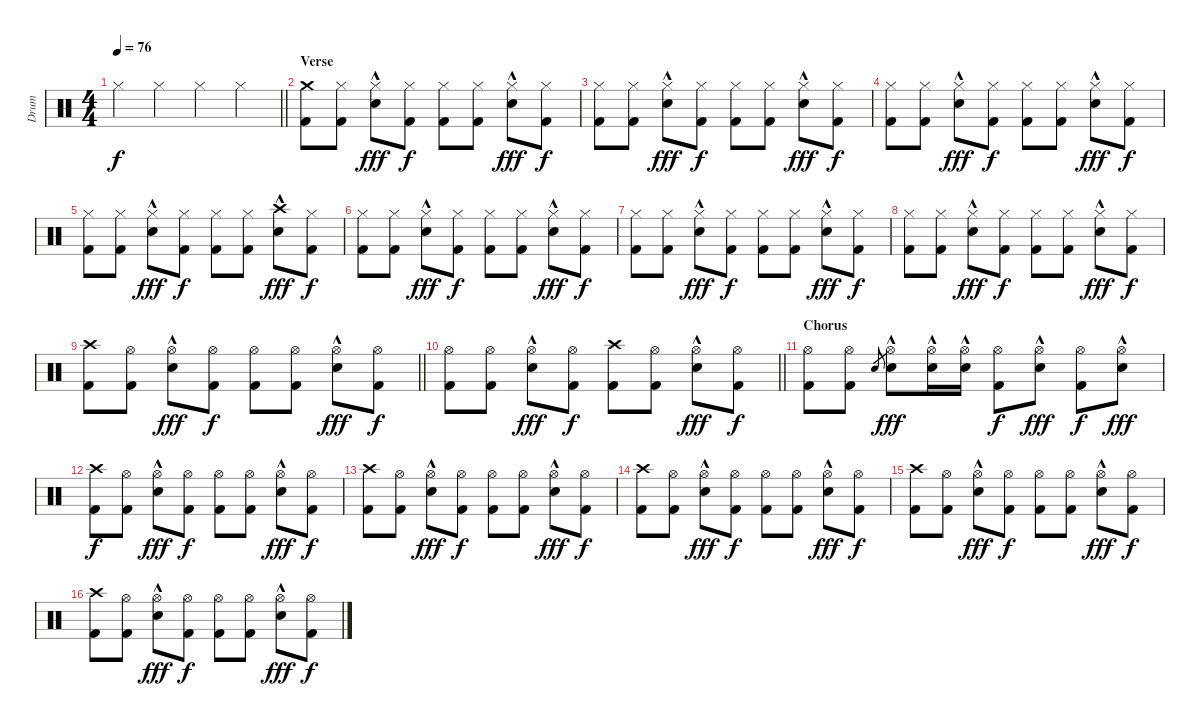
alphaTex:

\track ("Drum" "Drum") {instrument percussion}
\staff {score}
\articulation defaults
\ts (4 4)
\tempo 76
\clef neutral
\barLineRight lightlight
\ks c "Hi-Hat (closed)".4{dy f} "Hi-Hat (closed)".4 "Hi-Hat (closed)".4 "Hi-Hat (closed)".4
|
\section ("" "Verse")
("Crash medium (hit)" "Kick (hit) 2").8 ("Hi-Hat (closed)" "Kick (hit) 2").8 ("Hi-Hat (closed)" "Electric Snare (hit)"{hac}).8{dy fff} ("Hi-Hat (closed)" "Kick (hit) 2").8{dy f} ("Hi-Hat (closed)" "Kick (hit) 2").8 ("Hi-Hat (closed)" "Kick (hit) 2").8 ("Hi-Hat (closed)" "Electric Snare (hit)"{hac}).8{dy fff} ("Hi-Hat (closed)" "Kick (hit) 2").8{dy f} |
("Hi-Hat (closed)" "Kick (hit) 2").8 ("Hi-Hat (closed)" "Kick (hit) 2").8 ("Hi-Hat (closed)" "Electric Snare (hit)"{hac}).8{dy fff} ("Hi-Hat (closed)" "Kick (hit) 2").8{dy f} ("Hi-Hat (closed)" "Kick (hit) 2").8 ("Hi-Hat (closed)" "Kick (hit) 2").8 ("Hi-Hat (closed)" "Electric Snare (hit)"{hac}).8{dy fff} ("Hi-Hat (closed)" "Kick (hit) 2").8{dy f} |
("Hi-Hat (closed)" "Kick (hit) 2").8 ("Hi-Hat (closed)" "Kick (hit) 2").8 ("Hi-Hat (closed)" "Electric Snare (hit)"{hac}).8{dy fff} ("Hi-Hat (closed)" "Kick (hit) 2").8{dy f} ("Hi-Hat (closed)" "Kick (hit) 2").8 ("Hi-Hat (closed)" "Kick (hit) 2").8 ("Hi-Hat (closed)" "Electric Snare (hit)"{hac}).8{dy fff} ("Hi-Hat (closed)" "Kick (hit) 2").8{dy f} |
("Hi-Hat (closed)" "Kick (hit) 2").8 ("Hi-Hat (closed)" "Kick (hit) 2").8 ("Hi-Hat (closed)" "Electric Snare (hit)"{hac}).8{dy fff} ("Hi-Hat (closed)" "Kick (hit) 2").8{dy f} ("Hi-Hat (closed)" "Kick (hit) 2").8 ("Hi-Hat (closed)" "Kick (hit) 2").8 ("Crash high (hit)" "Electric Snare (hit)"{hac}).8{dy fff} ("Hi-Hat (closed)" "Kick (hit) 2").8{dy f} |
("Hi-Hat (closed)" "Kick (hit) 2").8 ("Hi-Hat (closed)" "Kick (hit) 2").8 ("Hi-Hat (closed)" "Electric Snare (hit)"{hac}).8{dy fff} ("Hi-Hat (closed)" "Kick (hit) 2").8{dy f} ("Hi-Hat (closed)" "Kick (hit) 2").8 ("Hi-Hat (closed)" "Kick (hit) 2").8 ("Hi-Hat (closed)" "Electric Snare (hit)"{hac}).8{dy fff} ("Hi-Hat (closed)" "Kick (hit) 2").8{dy f} |
("Hi-Hat (closed)" "Kick (hit) 2").8 ("Hi-Hat (closed)" "Kick (hit) 2").8 ("Hi-Hat (closed)" "Electric Snare (hit)"{hac}).8{dy fff} ("Hi-Hat (closed)" "Kick (hit) 2").8{dy f} ("Hi-Hat (closed)" "Kick (hit) 2").8 ("Hi-Hat (closed)" "Kick (hit) 2").8 ("Hi-Hat (closed)" "Electric Snare (hit)"{hac}).8{dy fff} ("Hi-Hat (closed)" "Kick (hit) 2").8{dy f} |
("Hi-Hat (closed)" "Kick (hit) 2").8 ("Hi-Hat (closed)" "Kick (hit) 2").8 ("Hi-Hat (closed)" "Electric Snare (hit)"{hac}).8{dy fff} ("Hi-Hat (closed)" "Kick (hit) 2").8{dy f} ("Hi-Hat (closed)" "Kick (hit) 2").8 ("Hi-Hat (closed)" "Kick (hit) 2").8 ("Hi-Hat (closed)" "Electric Snare (hit)"{hac}).8{dy fff} ("Hi-Hat (closed)" "Kick (hit) 2").8{dy f} |
\barLineRight lightlight
("Crash high (hit)" "Kick (hit) 2").8 ("Hi-Hat (open)" "Kick (hit) 2").8 ("Hi-Hat (open)" "Electric Snare (hit)"{hac}).8{dy fff} ("Hi-Hat (open)" "Kick (hit) 2").8{dy f} ("Hi-Hat (open)" "Kick (hit) 2").8 ("Hi-Hat (open)" "Kick (hit) 2").8 ("Hi-Hat (open)" "Electric Snare (hit)"{hac}).8{dy fff} ("Hi-Hat (open)" "Kick (hit) 2").8{dy f} |
\barLineRight lightlight
("Hi-Hat (open)" "Kick (hit) 2").8 ("Hi-Hat (open)" "Kick (hit) 2").8 ("Hi-Hat (open)" "Electric Snare (hit)"{hac}).8{dy fff} ("Hi-Hat (open)" "Kick (hit) 2").8{dy f} ("Crash high (hit)" "Kick (hit) 2").8 ("Hi-Hat (open)" "Kick (hit) 2").8 ("Hi-Hat (open)" "Electric Snare (hit)"{hac}).8{dy fff} ("Hi-Hat (open)" "Kick (hit) 2").8{dy f} |
\section ("" "Chorus")
("Hi-Hat (open)" "Kick (hit) 2").8 ("Hi-Hat (open)" "Kick (hit) 2").8 "Electric Snare (hit)".8{gr} ("Hi-Hat (open)" "Electric Snare (hit)"{hac}).8{dy fff} ("Hi-Hat (open)" "Electric Snare (hit)"{hac}).16 ("Hi-Hat (open)" "Electric Snare (hit)"{hac}).16 ("Hi-Hat (open)" "Kick (hit) 2").8{dy f} ("Hi-Hat (open)" "Electric Snare (hit)"{hac}).8{dy fff} ("Hi-Hat (open)" "Kick (hit) 2").8{dy f} ("Hi-Hat (open)" "Electric Snare (hit)"{hac}).8{dy fff} |
("Crash high (hit)" "Kick (hit) 2").8{dy f} ("Hi-Hat (open)" "Kick (hit) 2").8 ("Hi-Hat (open)" "Electric Snare (hit)"{hac}).8{dy fff} ("Hi-Hat (open)" "Kick (hit) 2").8{dy f} ("Hi-Hat (open)" "Kick (hit) 2").8 ("Hi-Hat (open)" "Kick (hit) 2").8 ("Hi-Hat (open)" "Electric Snare (hit)"{hac}).8{dy fff} ("Hi-Hat (open)" "Kick (hit) 2").8{dy f} |
("Crash high (hit)" "Kick (hit) 2").8 ("Hi-Hat (open)" "Kick (hit) 2").8 ("Hi-Hat (open)" "Electric Snare (hit)"{hac}).8{dy fff} ("Hi-Hat (open)" "Kick (hit) 2").8{dy f} ("Hi-Hat (open)" "Kick (hit) 2").8 ("Hi-Hat (open)" "Kick (hit) 2").8 ("Hi-Hat (open)" "Electric Snare (hit)"{hac}).8{dy fff} ("Hi-Hat (open)" "Kick (hit) 2").8{dy f} |
("Crash high (hit)" "Kick (hit) 2").8 ("Hi-Hat (open)" "Kick (hit) 2").8 ("Hi-Hat (open)" "Electric Snare (hit)"{hac}).8{dy fff} ("Hi-Hat (open)" "Kick (hit) 2").8{dy f} ("Hi-Hat (open)" "Kick (hit) 2").8 ("Hi-Hat (open)" "Kick (hit) 2").8 ("Hi-Hat (open)" "Electric Snare (hit)"{hac}).8{dy fff} ("Hi-Hat (open)" "Kick (hit) 2").8{dy f} |
("Crash high (hit)" "Kick (hit) 2").8 ("Hi-Hat (open)" "Kick (hit) 2").8 ("Hi-Hat (open)" "Electric Snare (hit)"{hac}).8{dy fff} ("Hi-Hat (open)" "Kick (hit) 2").8{dy f} ("Hi-Hat (open)" "Kick (hit) 2").8 ("Hi-Hat (open)" "Kick (hit) 2").8 ("Hi-Hat (open)" "Electric Snare (hit)"{hac}).8{dy fff} ("Hi-Hat (open)" "Kick (hit) 2").8{dy f} |
("Crash high (hit)" "Kick (hit) 2").8 ("Hi-Hat (open)" "Kick (hit) 2").8 ("Hi-Hat (open)" "Electric Snare (hit)"{hac}).8{dy fff} ("Hi-Hat (open)" "Kick (hit) 2").8{dy f} ("Hi-Hat (open)" "Kick (hit) 2").8 ("Hi-Hat (open)" "Kick (hit) 2").8 ("Hi-Hat (open)" "Electric Snare (hit)"{hac}).8{dy fff} ("Hi-Hat (open)" "Kick (hit) 2").8{dy f}
